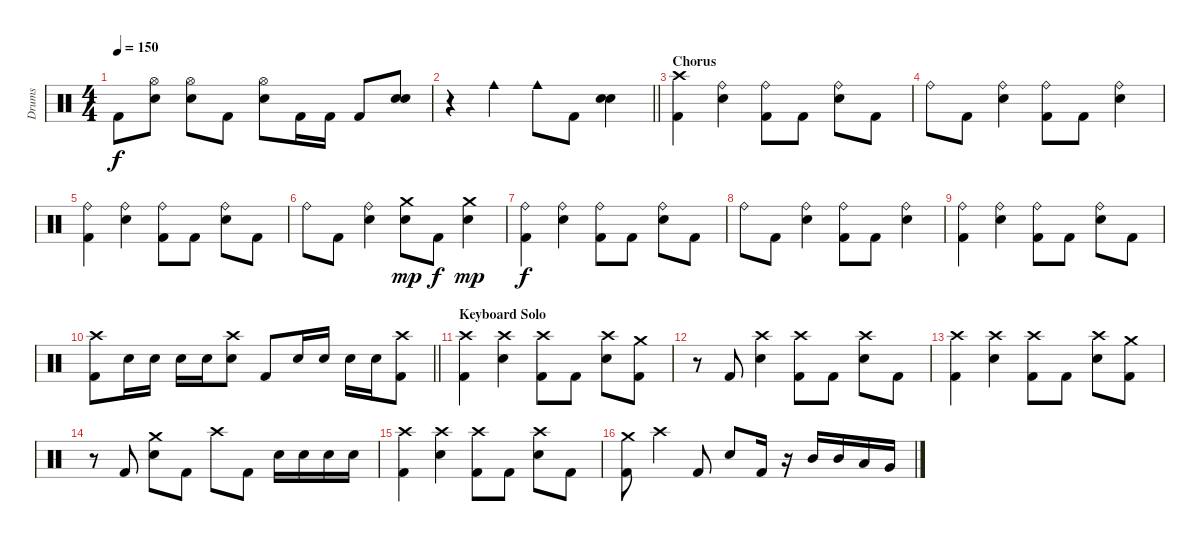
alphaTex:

\track ("Drums" "Drums") {instrument percussion}
\staff {score}
\articulation defaults
\ts (4 4)
\tempo 150
\clef neutral
\ks c "Kick (hit) 2".8{dy f}
("Hi-Hat (open)" "Snare (hit) 2").8 ("Hi-Hat (open)" "Snare (hit) 2").8 "Kick (hit) 2".8 ("Hi-Hat (open)" "Snare (hit) 2").8 "Kick (hit) 2".16 "Kick (hit) 2".16 "Kick (hit) 2".8 ("Snare (hit) 2" "Snare (hit) 2").8 |
\barLineRight lightlight
r.4 "Cowbell medium (hit)".4 "Cowbell medium (hit)".8 "Kick (hit) 2".8 ("Snare (hit) 2" "Snare (hit) 2").4 |
\section ("" "Chorus")
("Crash high (hit)" "Kick (hit) 2").4 ("Ride (bell)" "Snare (hit) 2").4 ("Ride (bell)" "Kick (hit) 2").8 "Kick (hit) 2".8 ("Ride (bell)" "Snare (hit) 2").8 "Kick (hit) 2".8 |
"Ride (bell)".8 "Kick (hit) 2".8 ("Ride (bell)" "Snare (hit) 2").4 ("Ride (bell)" "Kick (hit) 2").8 "Kick (hit) 2".8 ("Ride (bell)" "Snare (hit) 2").4 |
("Ride (bell)" "Kick (hit) 2").4 ("Ride (bell)" "Snare (hit) 2").4 ("Ride (bell)" "Kick (hit) 2").8 "Kick (hit) 2".8 ("Ride (bell)" "Snare (hit) 2").8 "Kick (hit) 2".8 |
"Ride (bell)".8 "Kick (hit) 2".8 ("Ride (bell)" "Snare (hit) 2").4 ("Crash medium (hit)" "Snare (hit) 2").8{dy mp} "Kick (hit) 2".8{dy f} ("Crash medium (hit)" "Snare (hit) 2").4{dy mp} |
("Ride (bell)" "Kick (hit) 2").4{dy f} ("Ride (bell)" "Snare (hit) 2").4 ("Ride (bell)" "Kick (hit) 2").8 "Kick (hit) 2".8 ("Ride (bell)" "Snare (hit) 2").8 "Kick (hit) 2".8 |
"Ride (bell)".8 "Kick (hit) 2".8 ("Ride (bell)" "Snare (hit) 2").4 ("Ride (bell)" "Kick (hit) 2").8 "Kick (hit) 2".8 ("Ride (bell)" "Snare (hit) 2").4 |
("Ride (bell)" "Kick (hit) 2").4 ("Ride (bell)" "Snare (hit) 2").4 ("Ride (bell)" "Kick (hit) 2").8 "Kick (hit) 2".8 ("Ride (bell)" "Snare (hit) 2").8 "Kick (hit) 2".8 |
\barLineRight lightlight
("Crash high (hit)" "Kick (hit) 2").8 "Snare (hit) 2".16 "Snare (hit) 2".16 "Snare (hit) 2".16 "Snare (hit) 2".16 ("Crash high (hit)" "Snare (hit) 2").8 "Kick (hit) 2".8 "Snare (hit) 2".16 "Snare (hit) 2".16 "Snare (hit) 2".16 "Snare (hit) 2".16 ("Crash high (hit)" "Kick (hit) 2").8 |
\section ("" "Keyboard Solo")
("Crash high (hit)" "Kick (hit) 2").4 ("Crash high (hit)" "Snare (hit) 2").4 ("Crash high (hit)" "Kick (hit) 2").8 "Kick (hit) 2".8 ("Crash high (hit)" "Snare (hit) 2").8 ("Crash medium (hit)" "Kick (hit) 2").8 |
r.8 "Kick (hit) 2".8 ("Crash high (hit)" "Snare (hit) 2").4 ("Crash high (hit)" "Kick (hit) 2").8 "Kick (hit) 2".8 ("Crash high (hit)" "Snare (hit) 2").8 "Kick (hit) 2".8 |
("Crash high (hit)" "Kick (hit) 2").4 ("Crash high (hit)" "Snare (hit) 2").4 ("Crash high (hit)" "Kick (hit) 2").8 "Kick (hit) 2".8 ("Crash high (hit)" "Snare (hit) 2").8 ("Crash medium (hit)" "Kick (hit) 2").8 |
r.8 "Kick (hit) 2".8 ("Crash medium (hit)" "Snare (hit) 2").8 "Kick (hit) 2".8 "Crash high (hit)".8 "Kick (hit) 2".8 "Snare (hit) 2".16 "Snare (hit) 2".16 "Snare (hit) 2".16 "Snare (hit) 2".16 |
("Crash high (hit)" "Kick (hit) 2").4 ("Crash high (hit)" "Snare (hit) 2").4 ("Crash high (hit)" "Kick (hit) 2").8 "Kick (hit) 2".8 ("Crash high (hit)" "Snare (hit) 2").8 "Kick (hit) 2".8 |
("Crash medium (hit)" "Kick (hit) 2").8 "Crash high (hit)".4 "Kick (hit) 2".8 "Snare (hit) 2".8 "Kick (hit) 2".16 r.16 "Mid Tom (hit)".16 "Mid Tom (hit)".16 "Low Tom (hit)".16 "Very Low Tom (hit)".16
